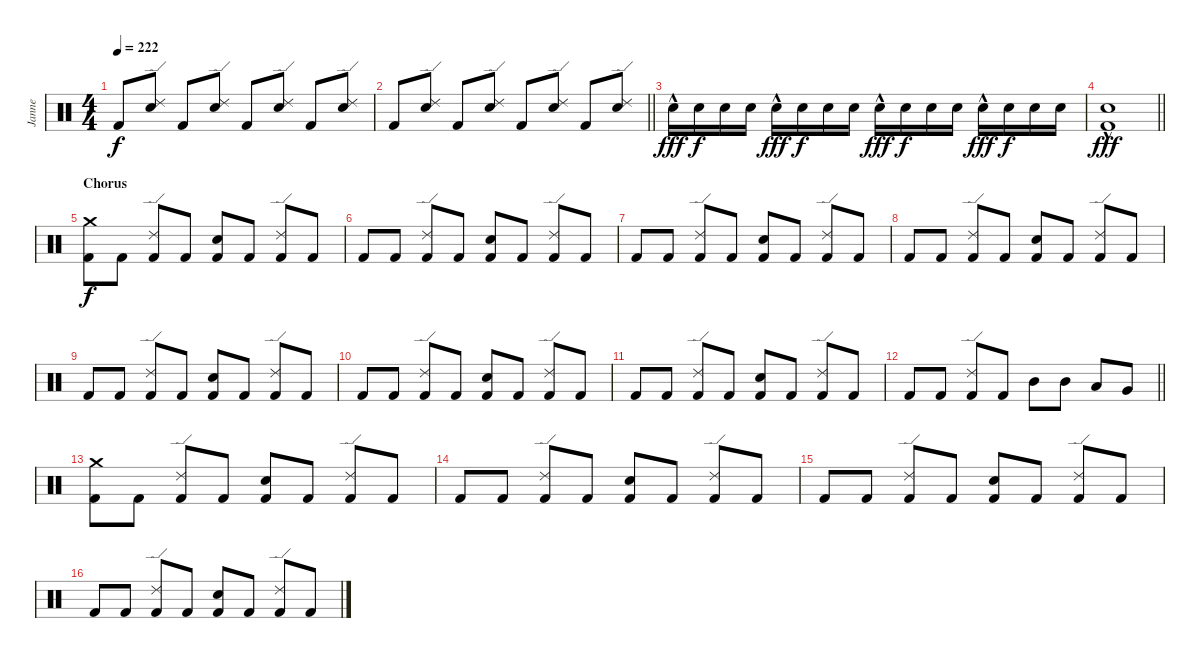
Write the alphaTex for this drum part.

\track ("Janne" "Janne") {instrument percussion}
\staff {score}
\articulation defaults
\ts (4 4)
\tempo 222
\clef neutral
\ks c "Kick (hit) 2".8{dy f}
("Electric Snare (hit)" "Ride (edge) 2").8 "Kick (hit) 2".8 ("Electric Snare (hit)" "Ride (edge) 2").8 "Kick (hit) 2".8 ("Electric Snare (hit)" "Ride (edge) 2").8 "Kick (hit) 2".8 ("Electric Snare (hit)" "Ride (edge) 2").8 |
\barLineRight lightlight "Kick (hit) 2".8
("Electric Snare (hit)" "Ride (edge) 2").8 "Kick (hit) 2".8 ("Electric Snare (hit)" "Ride (edge) 2").8 "Kick (hit) 2".8 ("Electric Snare (hit)" "Ride (edge) 2").8 "Kick (hit) 2".8 ("Electric Snare (hit)" "Ride (edge) 2").8 |
\section ("" "")
"Electric Snare (hit)"{hac}.16{dy fff} "Electric Snare (hit)".16{dy f} "Electric Snare (hit)".16 "Electric Snare (hit)".16 "Electric Snare (hit)"{hac}.16{dy fff} "Electric Snare (hit)".16{dy f} "Electric Snare (hit)".16 "Electric Snare (hit)".16 "Electric Snare (hit)"{hac}.16{dy fff} "Electric Snare (hit)".16{dy f} "Electric Snare (hit)".16 "Electric Snare (hit)".16 "Electric Snare (hit)"{hac}.16{dy fff} "Electric Snare (hit)".16{dy f} "Electric Snare (hit)".16 "Electric Snare (hit)".16 |
\barLineRight lightlight
("Kick (hit) 2" "Electric Snare (hit)"{hac}).1{dy fff} |
\section ("" "Chorus")
("Kick (hit) 2" "Crash medium (hit)").8{dy f} "Kick (hit) 2".8 ("Kick (hit) 2" "Ride (edge) 2").8 "Kick (hit) 2".8 ("Kick (hit) 2" "Electric Snare (hit)").8 "Kick (hit) 2".8 ("Kick (hit) 2" "Ride (edge) 2").8 "Kick (hit) 2".8 |
"Kick (hit) 2".8 "Kick (hit) 2".8 ("Kick (hit) 2" "Ride (edge) 2").8 "Kick (hit) 2".8 ("Kick (hit) 2" "Electric Snare (hit)").8 "Kick (hit) 2".8 ("Kick (hit) 2" "Ride (edge) 2").8 "Kick (hit) 2".8 |
"Kick (hit) 2".8 "Kick (hit) 2".8 ("Kick (hit) 2" "Ride (edge) 2").8 "Kick (hit) 2".8 ("Kick (hit) 2" "Electric Snare (hit)").8 "Kick (hit) 2".8 ("Kick (hit) 2" "Ride (edge) 2").8 "Kick (hit) 2".8 |
"Kick (hit) 2".8 "Kick (hit) 2".8 ("Kick (hit) 2" "Ride (edge) 2").8 "Kick (hit) 2".8 ("Kick (hit) 2" "Electric Snare (hit)").8 "Kick (hit) 2".8 ("Kick (hit) 2" "Ride (edge) 2").8 "Kick (hit) 2".8 |
"Kick (hit) 2".8 "Kick (hit) 2".8 ("Kick (hit) 2" "Ride (edge) 2").8 "Kick (hit) 2".8 ("Kick (hit) 2" "Electric Snare (hit)").8 "Kick (hit) 2".8 ("Kick (hit) 2" "Ride (edge) 2").8 "Kick (hit) 2".8 |
"Kick (hit) 2".8 "Kick (hit) 2".8 ("Kick (hit) 2" "Ride (edge) 2").8 "Kick (hit) 2".8 ("Kick (hit) 2" "Electric Snare (hit)").8 "Kick (hit) 2".8 ("Kick (hit) 2" "Ride (edge) 2").8 "Kick (hit) 2".8 |
"Kick (hit) 2".8 "Kick (hit) 2".8 ("Kick (hit) 2" "Ride (edge) 2").8 "Kick (hit) 2".8 ("Kick (hit) 2" "Electric Snare (hit)").8 "Kick (hit) 2".8 ("Kick (hit) 2" "Ride (edge) 2").8 "Kick (hit) 2".8 |
\barLineRight lightlight "Kick (hit) 2".8 "Kick (hit) 2".8
("Kick (hit) 2" "Ride (edge) 2").8 "Kick (hit) 2".8 "Mid Tom (hit)".8 "Mid Tom (hit)".8 "Low Tom (hit)".8 "Very Low Tom (hit)".8 |
\section ("" "")
("Kick (hit) 2" "Crash medium (hit)").8 "Kick (hit) 2".8 ("Kick (hit) 2" "Ride (edge) 2").8 "Kick (hit) 2".8 ("Kick (hit) 2" "Electric Snare (hit)").8 "Kick (hit) 2".8 ("Kick (hit) 2" "Ride (edge) 2").8 "Kick (hit) 2".8 |
"Kick (hit) 2".8 "Kick (hit) 2".8 ("Kick (hit) 2" "Ride (edge) 2").8 "Kick (hit) 2".8 ("Kick (hit) 2" "Electric Snare (hit)").8 "Kick (hit) 2".8 ("Kick (hit) 2" "Ride (edge) 2").8 "Kick (hit) 2".8 |
"Kick (hit) 2".8 "Kick (hit) 2".8 ("Kick (hit) 2" "Ride (edge) 2").8 "Kick (hit) 2".8 ("Kick (hit) 2" "Electric Snare (hit)").8 "Kick (hit) 2".8 ("Kick (hit) 2" "Ride (edge) 2").8 "Kick (hit) 2".8 |
"Kick (hit) 2".8 "Kick (hit) 2".8 ("Kick (hit) 2" "Ride (edge) 2").8 "Kick (hit) 2".8 ("Kick (hit) 2" "Electric Snare (hit)").8 "Kick (hit) 2".8 ("Kick (hit) 2" "Ride (edge) 2").8 "Kick (hit) 2".8
